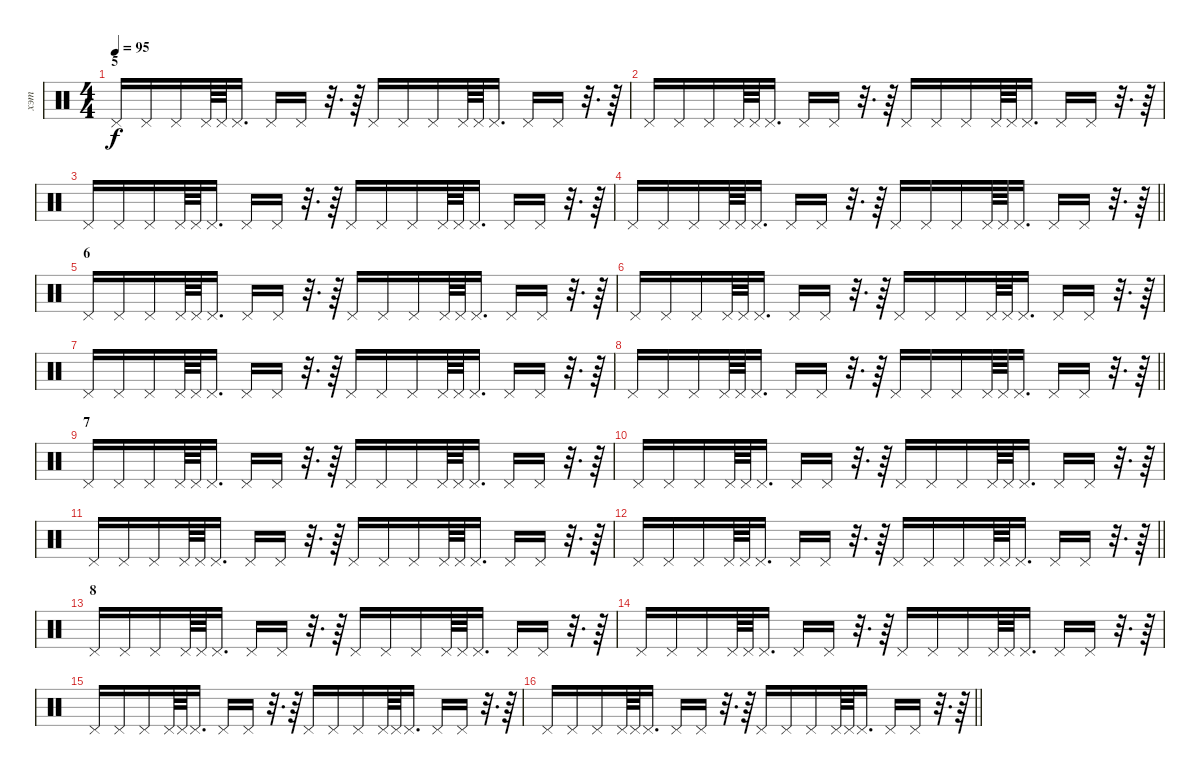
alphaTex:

\track ("хэт" "хэт") {instrument percussion}
\staff {score}
\articulation defaults
\ts (4 4)
\section ("" "5")
\tempo 95
\clef neutral
\ks c "Pedal Hi-Hat (hit)".16{dy f} "Pedal Hi-Hat (hit)".16 "Pedal Hi-Hat (hit)".16 "Pedal Hi-Hat (hit)".64 "Pedal Hi-Hat (hit)".64 "Pedal Hi-Hat (hit)".16{d} "Pedal Hi-Hat (hit)".16 "Pedal Hi-Hat (hit)".16
r.32{d} r.64 "Pedal Hi-Hat (hit)".16 "Pedal Hi-Hat (hit)".16 "Pedal Hi-Hat (hit)".16 "Pedal Hi-Hat (hit)".64 "Pedal Hi-Hat (hit)".64 "Pedal Hi-Hat (hit)".16{d} "Pedal Hi-Hat (hit)".16 "Pedal Hi-Hat (hit)".16 r.32{d} r.64 |
"Pedal Hi-Hat (hit)".16 "Pedal Hi-Hat (hit)".16 "Pedal Hi-Hat (hit)".16 "Pedal Hi-Hat (hit)".64 "Pedal Hi-Hat (hit)".64 "Pedal Hi-Hat (hit)".16{d} "Pedal Hi-Hat (hit)".16 "Pedal Hi-Hat (hit)".16 r.32{d} r.64 "Pedal Hi-Hat (hit)".16 "Pedal Hi-Hat (hit)".16 "Pedal Hi-Hat (hit)".16 "Pedal Hi-Hat (hit)".64 "Pedal Hi-Hat (hit)".64 "Pedal Hi-Hat (hit)".16{d} "Pedal Hi-Hat (hit)".16 "Pedal Hi-Hat (hit)".16 r.32{d} r.64 |
"Pedal Hi-Hat (hit)".16 "Pedal Hi-Hat (hit)".16 "Pedal Hi-Hat (hit)".16 "Pedal Hi-Hat (hit)".64 "Pedal Hi-Hat (hit)".64 "Pedal Hi-Hat (hit)".16{d} "Pedal Hi-Hat (hit)".16 "Pedal Hi-Hat (hit)".16 r.32{d} r.64 "Pedal Hi-Hat (hit)".16 "Pedal Hi-Hat (hit)".16 "Pedal Hi-Hat (hit)".16 "Pedal Hi-Hat (hit)".64 "Pedal Hi-Hat (hit)".64 "Pedal Hi-Hat (hit)".16{d} "Pedal Hi-Hat (hit)".16 "Pedal Hi-Hat (hit)".16 r.32{d} r.64 |
\barLineRight lightlight "Pedal Hi-Hat (hit)".16 "Pedal Hi-Hat (hit)".16 "Pedal Hi-Hat (hit)".16 "Pedal Hi-Hat (hit)".64 "Pedal Hi-Hat (hit)".64 "Pedal Hi-Hat (hit)".16{d} "Pedal Hi-Hat (hit)".16 "Pedal Hi-Hat (hit)".16
r.32{d} r.64 "Pedal Hi-Hat (hit)".16 "Pedal Hi-Hat (hit)".16 "Pedal Hi-Hat (hit)".16 "Pedal Hi-Hat (hit)".64 "Pedal Hi-Hat (hit)".64 "Pedal Hi-Hat (hit)".16{d} "Pedal Hi-Hat (hit)".16 "Pedal Hi-Hat (hit)".16 r.32{d} r.64 |
\section ("" "6")
"Pedal Hi-Hat (hit)".16 "Pedal Hi-Hat (hit)".16 "Pedal Hi-Hat (hit)".16 "Pedal Hi-Hat (hit)".64 "Pedal Hi-Hat (hit)".64 "Pedal Hi-Hat (hit)".16{d} "Pedal Hi-Hat (hit)".16 "Pedal Hi-Hat (hit)".16 r.32{d} r.64 "Pedal Hi-Hat (hit)".16 "Pedal Hi-Hat (hit)".16 "Pedal Hi-Hat (hit)".16 "Pedal Hi-Hat (hit)".64 "Pedal Hi-Hat (hit)".64 "Pedal Hi-Hat (hit)".16{d} "Pedal Hi-Hat (hit)".16 "Pedal Hi-Hat (hit)".16 r.32{d} r.64 |
"Pedal Hi-Hat (hit)".16 "Pedal Hi-Hat (hit)".16 "Pedal Hi-Hat (hit)".16 "Pedal Hi-Hat (hit)".64 "Pedal Hi-Hat (hit)".64 "Pedal Hi-Hat (hit)".16{d} "Pedal Hi-Hat (hit)".16 "Pedal Hi-Hat (hit)".16 r.32{d} r.64 "Pedal Hi-Hat (hit)".16 "Pedal Hi-Hat (hit)".16 "Pedal Hi-Hat (hit)".16 "Pedal Hi-Hat (hit)".64 "Pedal Hi-Hat (hit)".64 "Pedal Hi-Hat (hit)".16{d} "Pedal Hi-Hat (hit)".16 "Pedal Hi-Hat (hit)".16 r.32{d} r.64 |
"Pedal Hi-Hat (hit)".16 "Pedal Hi-Hat (hit)".16 "Pedal Hi-Hat (hit)".16 "Pedal Hi-Hat (hit)".64 "Pedal Hi-Hat (hit)".64 "Pedal Hi-Hat (hit)".16{d} "Pedal Hi-Hat (hit)".16 "Pedal Hi-Hat (hit)".16 r.32{d} r.64 "Pedal Hi-Hat (hit)".16 "Pedal Hi-Hat (hit)".16 "Pedal Hi-Hat (hit)".16 "Pedal Hi-Hat (hit)".64 "Pedal Hi-Hat (hit)".64 "Pedal Hi-Hat (hit)".16{d} "Pedal Hi-Hat (hit)".16 "Pedal Hi-Hat (hit)".16 r.32{d} r.64 |
\barLineRight lightlight "Pedal Hi-Hat (hit)".16 "Pedal Hi-Hat (hit)".16 "Pedal Hi-Hat (hit)".16 "Pedal Hi-Hat (hit)".64 "Pedal Hi-Hat (hit)".64 "Pedal Hi-Hat (hit)".16{d} "Pedal Hi-Hat (hit)".16 "Pedal Hi-Hat (hit)".16
r.32{d} r.64 "Pedal Hi-Hat (hit)".16 "Pedal Hi-Hat (hit)".16 "Pedal Hi-Hat (hit)".16 "Pedal Hi-Hat (hit)".64 "Pedal Hi-Hat (hit)".64 "Pedal Hi-Hat (hit)".16{d} "Pedal Hi-Hat (hit)".16 "Pedal Hi-Hat (hit)".16 r.32{d} r.64 |
\section ("" "7")
"Pedal Hi-Hat (hit)".16 "Pedal Hi-Hat (hit)".16 "Pedal Hi-Hat (hit)".16 "Pedal Hi-Hat (hit)".64 "Pedal Hi-Hat (hit)".64 "Pedal Hi-Hat (hit)".16{d} "Pedal Hi-Hat (hit)".16 "Pedal Hi-Hat (hit)".16 r.32{d} r.64 "Pedal Hi-Hat (hit)".16 "Pedal Hi-Hat (hit)".16 "Pedal Hi-Hat (hit)".16 "Pedal Hi-Hat (hit)".64 "Pedal Hi-Hat (hit)".64 "Pedal Hi-Hat (hit)".16{d} "Pedal Hi-Hat (hit)".16 "Pedal Hi-Hat (hit)".16 r.32{d} r.64 |
"Pedal Hi-Hat (hit)".16 "Pedal Hi-Hat (hit)".16 "Pedal Hi-Hat (hit)".16 "Pedal Hi-Hat (hit)".64 "Pedal Hi-Hat (hit)".64 "Pedal Hi-Hat (hit)".16{d} "Pedal Hi-Hat (hit)".16 "Pedal Hi-Hat (hit)".16 r.32{d} r.64 "Pedal Hi-Hat (hit)".16 "Pedal Hi-Hat (hit)".16 "Pedal Hi-Hat (hit)".16 "Pedal Hi-Hat (hit)".64 "Pedal Hi-Hat (hit)".64 "Pedal Hi-Hat (hit)".16{d} "Pedal Hi-Hat (hit)".16 "Pedal Hi-Hat (hit)".16 r.32{d} r.64 |
"Pedal Hi-Hat (hit)".16 "Pedal Hi-Hat (hit)".16 "Pedal Hi-Hat (hit)".16 "Pedal Hi-Hat (hit)".64 "Pedal Hi-Hat (hit)".64 "Pedal Hi-Hat (hit)".16{d} "Pedal Hi-Hat (hit)".16 "Pedal Hi-Hat (hit)".16 r.32{d} r.64 "Pedal Hi-Hat (hit)".16 "Pedal Hi-Hat (hit)".16 "Pedal Hi-Hat (hit)".16 "Pedal Hi-Hat (hit)".64 "Pedal Hi-Hat (hit)".64 "Pedal Hi-Hat (hit)".16{d} "Pedal Hi-Hat (hit)".16 "Pedal Hi-Hat (hit)".16 r.32{d} r.64 |
\barLineRight lightlight "Pedal Hi-Hat (hit)".16 "Pedal Hi-Hat (hit)".16 "Pedal Hi-Hat (hit)".16 "Pedal Hi-Hat (hit)".64 "Pedal Hi-Hat (hit)".64 "Pedal Hi-Hat (hit)".16{d} "Pedal Hi-Hat (hit)".16 "Pedal Hi-Hat (hit)".16
r.32{d} r.64 "Pedal Hi-Hat (hit)".16 "Pedal Hi-Hat (hit)".16 "Pedal Hi-Hat (hit)".16 "Pedal Hi-Hat (hit)".64 "Pedal Hi-Hat (hit)".64 "Pedal Hi-Hat (hit)".16{d} "Pedal Hi-Hat (hit)".16 "Pedal Hi-Hat (hit)".16 r.32{d} r.64 |
\section ("" "8")
"Pedal Hi-Hat (hit)".16 "Pedal Hi-Hat (hit)".16 "Pedal Hi-Hat (hit)".16 "Pedal Hi-Hat (hit)".64 "Pedal Hi-Hat (hit)".64 "Pedal Hi-Hat (hit)".16{d} "Pedal Hi-Hat (hit)".16 "Pedal Hi-Hat (hit)".16 r.32{d} r.64 "Pedal Hi-Hat (hit)".16 "Pedal Hi-Hat (hit)".16 "Pedal Hi-Hat (hit)".16 "Pedal Hi-Hat (hit)".64 "Pedal Hi-Hat (hit)".64 "Pedal Hi-Hat (hit)".16{d} "Pedal Hi-Hat (hit)".16 "Pedal Hi-Hat (hit)".16 r.32{d} r.64 |
"Pedal Hi-Hat (hit)".16 "Pedal Hi-Hat (hit)".16 "Pedal Hi-Hat (hit)".16 "Pedal Hi-Hat (hit)".64 "Pedal Hi-Hat (hit)".64 "Pedal Hi-Hat (hit)".16{d} "Pedal Hi-Hat (hit)".16 "Pedal Hi-Hat (hit)".16 r.32{d} r.64 "Pedal Hi-Hat (hit)".16 "Pedal Hi-Hat (hit)".16 "Pedal Hi-Hat (hit)".16 "Pedal Hi-Hat (hit)".64 "Pedal Hi-Hat (hit)".64 "Pedal Hi-Hat (hit)".16{d} "Pedal Hi-Hat (hit)".16 "Pedal Hi-Hat (hit)".16 r.32{d} r.64 |
"Pedal Hi-Hat (hit)".16 "Pedal Hi-Hat (hit)".16 "Pedal Hi-Hat (hit)".16 "Pedal Hi-Hat (hit)".64 "Pedal Hi-Hat (hit)".64 "Pedal Hi-Hat (hit)".16{d} "Pedal Hi-Hat (hit)".16 "Pedal Hi-Hat (hit)".16 r.32{d} r.64 "Pedal Hi-Hat (hit)".16 "Pedal Hi-Hat (hit)".16 "Pedal Hi-Hat (hit)".16 "Pedal Hi-Hat (hit)".64 "Pedal Hi-Hat (hit)".64 "Pedal Hi-Hat (hit)".16{d} "Pedal Hi-Hat (hit)".16 "Pedal Hi-Hat (hit)".16 r.32{d} r.64 |
\barLineRight lightlight "Pedal Hi-Hat (hit)".16 "Pedal Hi-Hat (hit)".16 "Pedal Hi-Hat (hit)".16 "Pedal Hi-Hat (hit)".64 "Pedal Hi-Hat (hit)".64 "Pedal Hi-Hat (hit)".16{d} "Pedal Hi-Hat (hit)".16 "Pedal Hi-Hat (hit)".16
r.32{d} r.64 "Pedal Hi-Hat (hit)".16 "Pedal Hi-Hat (hit)".16 "Pedal Hi-Hat (hit)".16 "Pedal Hi-Hat (hit)".64 "Pedal Hi-Hat (hit)".64 "Pedal Hi-Hat (hit)".16{d} "Pedal Hi-Hat (hit)".16 "Pedal Hi-Hat (hit)".16 r.32{d} r.64
